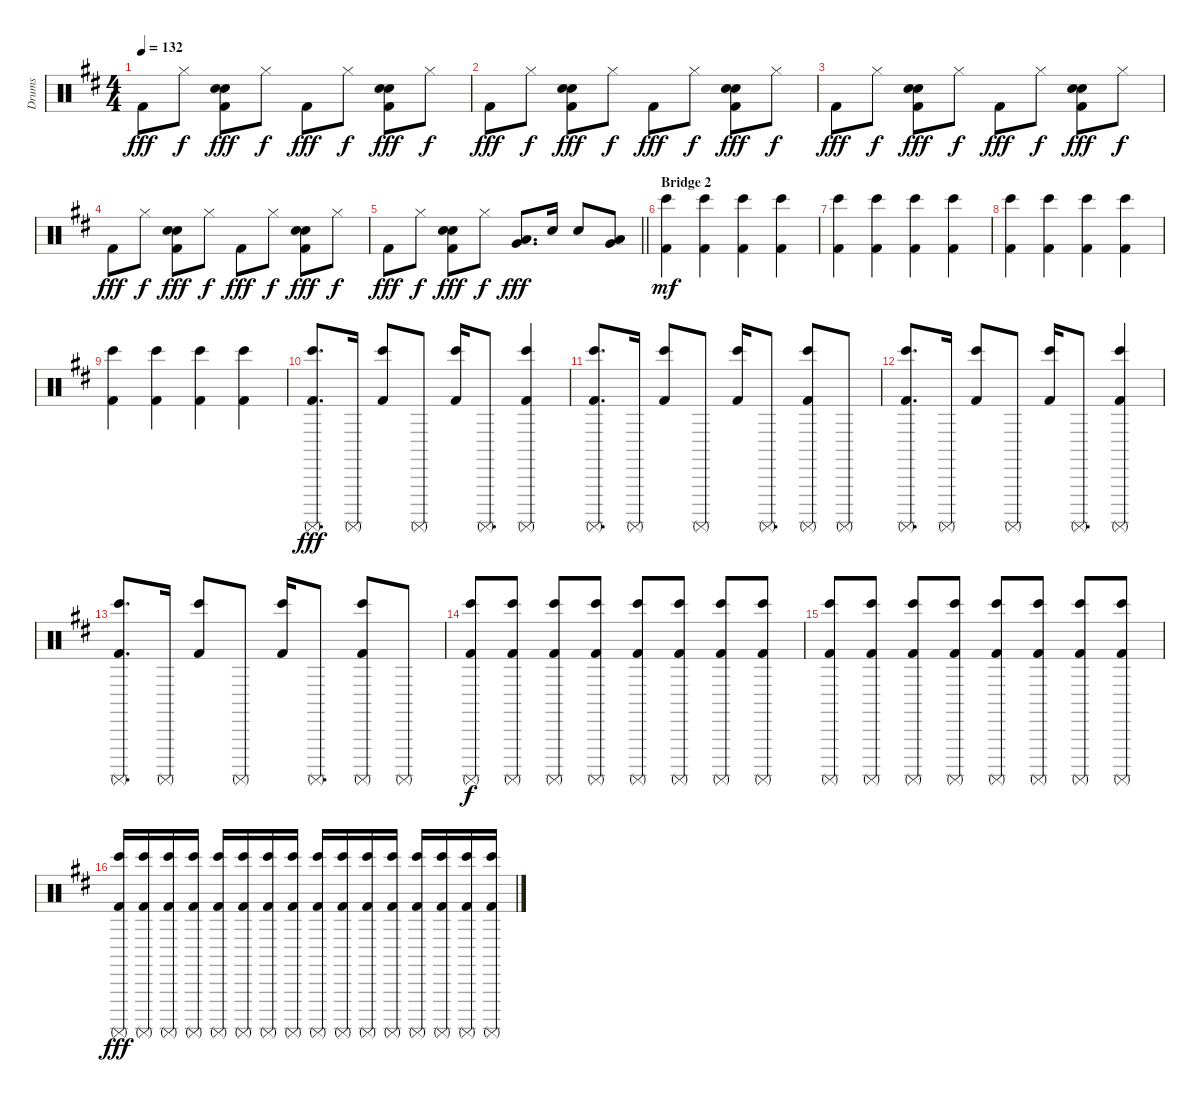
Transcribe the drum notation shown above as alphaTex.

\track ("Drums" "Drums") {instrument percussion}
\staff {score}
\articulation defaults
\ts (4 4)
\tempo 132
\clef neutral
\ks d "Kick (hit) 2".8{dy fff} "Hi-Hat (closed)".8{dy f}
("Snare (hit) 2" "Electric Snare (hit)" "Kick (hit) 2").8{dy fff} "Hi-Hat (closed)".8{dy f} "Kick (hit) 2".8{dy fff} "Hi-Hat (closed)".8{dy f} ("Snare (hit) 2" "Electric Snare (hit)" "Kick (hit) 2").8{dy fff} "Hi-Hat (closed)".8{dy f} |
"Kick (hit) 2".8{dy fff} "Hi-Hat (closed)".8{dy f} ("Snare (hit) 2" "Electric Snare (hit)" "Kick (hit) 2").8{dy fff} "Hi-Hat (closed)".8{dy f} "Kick (hit) 2".8{dy fff} "Hi-Hat (closed)".8{dy f} ("Snare (hit) 2" "Electric Snare (hit)" "Kick (hit) 2").8{dy fff} "Hi-Hat (closed)".8{dy f} |
"Kick (hit) 2".8{dy fff} "Hi-Hat (closed)".8{dy f} ("Snare (hit) 2" "Electric Snare (hit)" "Kick (hit) 2").8{dy fff} "Hi-Hat (closed)".8{dy f} "Kick (hit) 2".8{dy fff} "Hi-Hat (closed)".8{dy f} ("Snare (hit) 2" "Electric Snare (hit)" "Kick (hit) 2").8{dy fff} "Hi-Hat (closed)".8{dy f} |
"Kick (hit) 2".8{dy fff} "Hi-Hat (closed)".8{dy f} ("Snare (hit) 2" "Electric Snare (hit)" "Kick (hit) 2").8{dy fff} "Hi-Hat (closed)".8{dy f} "Kick (hit) 2".8{dy fff} "Hi-Hat (closed)".8{dy f} ("Snare (hit) 2" "Electric Snare (hit)" "Kick (hit) 2").8{dy fff} "Hi-Hat (closed)".8{dy f} |
\barLineRight lightlight "Kick (hit) 2".8{dy fff} "Hi-Hat (closed)".8{dy f}
("Snare (hit) 2" "Electric Snare (hit)" "Kick (hit) 2").8{dy fff} "Hi-Hat (closed)".8{dy f} ("Very Low Tom (hit)" "Low Floor Tom (hit)").8{d dy fff} "Electric Snare (hit)".16 "Electric Snare (hit)".8 ("Very Low Tom (hit)" "Low Floor Tom (hit)").8 |
\section ("" "Bridge 2")
("Bongo High (hit)" "Kick (hit) 2").4{dy mf} ("Bongo High (hit)" "Kick (hit) 2").4 ("Bongo High (hit)" "Kick (hit) 2").4 ("Bongo High (hit)" "Kick (hit) 2").4 |
("Bongo High (hit)" "Kick (hit) 2").4 ("Bongo High (hit)" "Kick (hit) 2").4 ("Bongo High (hit)" "Kick (hit) 2").4 ("Bongo High (hit)" "Kick (hit) 2").4 |
("Bongo High (hit)" "Kick (hit) 2").4 ("Bongo High (hit)" "Kick (hit) 2").4 ("Bongo High (hit)" "Kick (hit) 2").4 ("Bongo High (hit)" "Kick (hit) 2").4 |
("Bongo High (hit)" "Kick (hit) 2").4 ("Bongo High (hit)" "Kick (hit) 2").4 ("Bongo High (hit)" "Kick (hit) 2").4 ("Bongo High (hit)" "Kick (hit) 2").4 |
("Bongo High (hit)" "Surdo (mute)" "Kick (hit) 2").8{d dy fff} "Surdo (mute)".16 ("Bongo High (hit)" "Kick (hit) 2").8 "Surdo (mute)".8 ("Bongo High (hit)" "Kick (hit) 2").16 "Surdo (mute)".8{d} ("Bongo High (hit)" "Surdo (mute)" "Kick (hit) 2").4 |
("Bongo High (hit)" "Surdo (mute)" "Kick (hit) 2").8{d} "Surdo (mute)".16 ("Bongo High (hit)" "Kick (hit) 2").8 "Surdo (mute)".8 ("Bongo High (hit)" "Kick (hit) 2").16 "Surdo (mute)".8{d} ("Bongo High (hit)" "Surdo (mute)" "Kick (hit) 2").8 "Surdo (mute)".8 |
("Bongo High (hit)" "Surdo (mute)" "Kick (hit) 2").8{d} "Surdo (mute)".16 ("Bongo High (hit)" "Kick (hit) 2").8 "Surdo (mute)".8 ("Bongo High (hit)" "Kick (hit) 2").16 "Surdo (mute)".8{d} ("Bongo High (hit)" "Surdo (mute)" "Kick (hit) 2").4 |
("Bongo High (hit)" "Surdo (mute)" "Kick (hit) 2").8{d} "Surdo (mute)".16 ("Bongo High (hit)" "Kick (hit) 2").8 "Surdo (mute)".8 ("Bongo High (hit)" "Kick (hit) 2").16 "Surdo (mute)".8{d} ("Bongo High (hit)" "Surdo (mute)" "Kick (hit) 2").8 "Surdo (mute)".8 |
("Bongo High (hit)" "Surdo (mute)" "Kick (hit) 2").8{dy f} ("Bongo High (hit)" "Surdo (mute)" "Kick (hit) 2").8 ("Bongo High (hit)" "Surdo (mute)" "Kick (hit) 2").8 ("Bongo High (hit)" "Surdo (mute)" "Kick (hit) 2").8 ("Bongo High (hit)" "Surdo (mute)" "Kick (hit) 2").8 ("Bongo High (hit)" "Surdo (mute)" "Kick (hit) 2").8 ("Bongo High (hit)" "Surdo (mute)" "Kick (hit) 2").8 ("Bongo High (hit)" "Surdo (mute)" "Kick (hit) 2").8 |
("Bongo High (hit)" "Surdo (mute)" "Kick (hit) 2").8 ("Bongo High (hit)" "Surdo (mute)" "Kick (hit) 2").8 ("Bongo High (hit)" "Surdo (mute)" "Kick (hit) 2").8 ("Bongo High (hit)" "Surdo (mute)" "Kick (hit) 2").8 ("Bongo High (hit)" "Surdo (mute)" "Kick (hit) 2").8 ("Bongo High (hit)" "Surdo (mute)" "Kick (hit) 2").8 ("Bongo High (hit)" "Surdo (mute)" "Kick (hit) 2").8 ("Bongo High (hit)" "Surdo (mute)" "Kick (hit) 2").8 |
("Bongo High (hit)" "Surdo (mute)" "Kick (hit) 2").16{dy fff} ("Bongo High (hit)" "Surdo (mute)" "Kick (hit) 2").16 ("Bongo High (hit)" "Surdo (mute)" "Kick (hit) 2").16 ("Bongo High (hit)" "Surdo (mute)" "Kick (hit) 2").16 ("Bongo High (hit)" "Surdo (mute)" "Kick (hit) 2").16 ("Bongo High (hit)" "Surdo (mute)" "Kick (hit) 2").16 ("Bongo High (hit)" "Surdo (mute)" "Kick (hit) 2").16 ("Bongo High (hit)" "Surdo (mute)" "Kick (hit) 2").16 ("Bongo High (hit)" "Surdo (mute)" "Kick (hit) 2").16 ("Bongo High (hit)" "Surdo (mute)" "Kick (hit) 2").16 ("Bongo High (hit)" "Surdo (mute)" "Kick (hit) 2").16 ("Bongo High (hit)" "Surdo (mute)" "Kick (hit) 2").16 ("Bongo High (hit)" "Surdo (mute)" "Kick (hit) 2").16 ("Bongo High (hit)" "Surdo (mute)" "Kick (hit) 2").16 ("Bongo High (hit)" "Surdo (mute)" "Kick (hit) 2").16 ("Bongo High (hit)" "Surdo (mute)" "Kick (hit) 2").16
